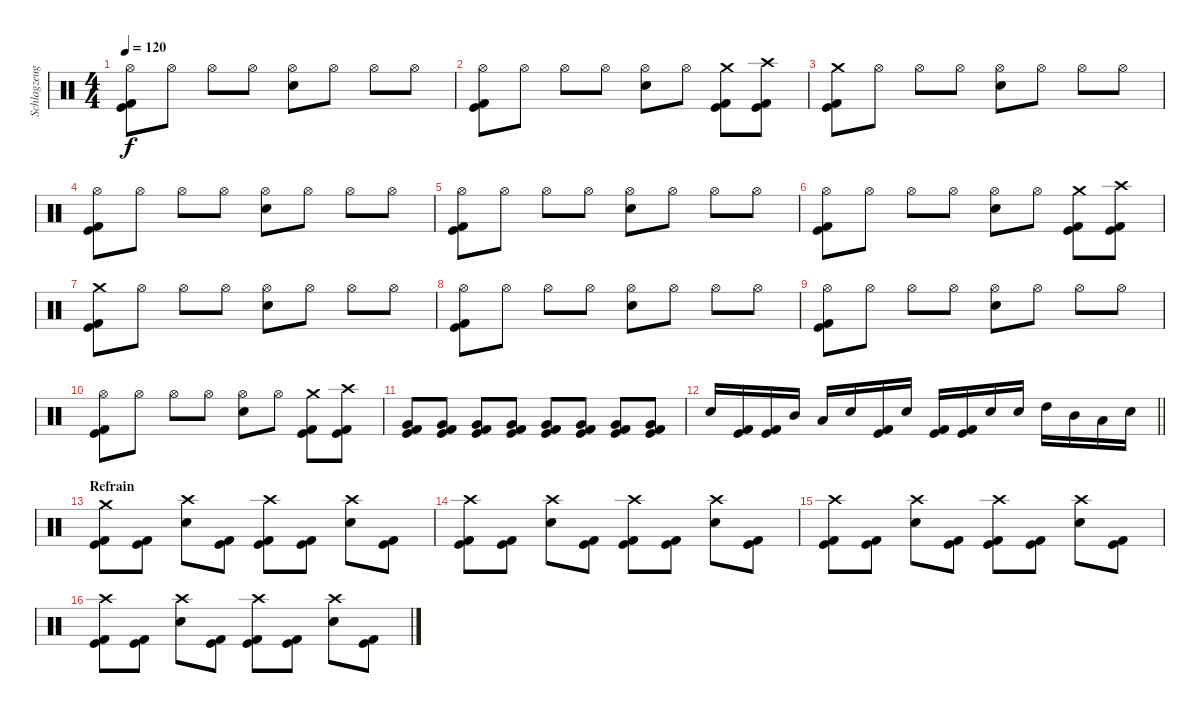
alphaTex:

\track ("Schlagzeug" "Schlagzeug") {instrument percussion}
\staff {score}
\articulation defaults
\ts (4 4)
\tempo 120
\clef neutral
\ks c
("Hi-Hat (open)" "Kick (hit) 2" "Kick (hit)").8{dy f} "Hi-Hat (open)".8 "Hi-Hat (open)".8 "Hi-Hat (open)".8 ("Hi-Hat (open)" "Electric Snare (hit)").8 "Hi-Hat (open)".8 "Hi-Hat (open)".8 "Hi-Hat (open)".8 |
("Hi-Hat (open)" "Kick (hit) 2" "Kick (hit)").8 "Hi-Hat (open)".8 "Hi-Hat (open)".8 "Hi-Hat (open)".8 ("Hi-Hat (open)" "Electric Snare (hit)").8 "Hi-Hat (open)".8 ("Kick (hit) 2" "Kick (hit)" "Crash medium (hit)").8 ("Kick (hit) 2" "Kick (hit)" "Crash high (hit)").8 |
("Kick (hit) 2" "Kick (hit)" "Crash medium (hit)").8 "Hi-Hat (open)".8 "Hi-Hat (open)".8 "Hi-Hat (open)".8 ("Hi-Hat (open)" "Electric Snare (hit)").8 "Hi-Hat (open)".8 "Hi-Hat (open)".8 "Hi-Hat (open)".8 |
("Hi-Hat (open)" "Kick (hit) 2" "Kick (hit)").8 "Hi-Hat (open)".8 "Hi-Hat (open)".8 "Hi-Hat (open)".8 ("Hi-Hat (open)" "Electric Snare (hit)").8 "Hi-Hat (open)".8 "Hi-Hat (open)".8 "Hi-Hat (open)".8 |
("Hi-Hat (open)" "Kick (hit) 2" "Kick (hit)").8 "Hi-Hat (open)".8 "Hi-Hat (open)".8 "Hi-Hat (open)".8 ("Hi-Hat (open)" "Electric Snare (hit)").8 "Hi-Hat (open)".8 "Hi-Hat (open)".8 "Hi-Hat (open)".8 |
("Hi-Hat (open)" "Kick (hit) 2" "Kick (hit)").8 "Hi-Hat (open)".8 "Hi-Hat (open)".8 "Hi-Hat (open)".8 ("Hi-Hat (open)" "Electric Snare (hit)").8 "Hi-Hat (open)".8 ("Kick (hit) 2" "Kick (hit)" "Crash medium (hit)").8 ("Kick (hit) 2" "Kick (hit)" "Crash high (hit)").8 |
("Kick (hit) 2" "Kick (hit)" "Crash medium (hit)").8 "Hi-Hat (open)".8 "Hi-Hat (open)".8 "Hi-Hat (open)".8 ("Hi-Hat (open)" "Electric Snare (hit)").8 "Hi-Hat (open)".8 "Hi-Hat (open)".8 "Hi-Hat (open)".8 |
("Hi-Hat (open)" "Kick (hit) 2" "Kick (hit)").8 "Hi-Hat (open)".8 "Hi-Hat (open)".8 "Hi-Hat (open)".8 ("Hi-Hat (open)" "Electric Snare (hit)").8 "Hi-Hat (open)".8 "Hi-Hat (open)".8 "Hi-Hat (open)".8 |
("Hi-Hat (open)" "Kick (hit) 2" "Kick (hit)").8 "Hi-Hat (open)".8 "Hi-Hat (open)".8 "Hi-Hat (open)".8 ("Hi-Hat (open)" "Electric Snare (hit)").8 "Hi-Hat (open)".8 "Hi-Hat (open)".8 "Hi-Hat (open)".8 |
("Hi-Hat (open)" "Kick (hit) 2" "Kick (hit)").8 "Hi-Hat (open)".8 "Hi-Hat (open)".8 "Hi-Hat (open)".8 ("Hi-Hat (open)" "Electric Snare (hit)").8 "Hi-Hat (open)".8 ("Kick (hit) 2" "Kick (hit)" "Crash medium (hit)").8 ("Kick (hit) 2" "Kick (hit)" "Crash high (hit)").8 |
("Very Low Tom (hit)" "Kick (hit) 2" "Kick (hit)").8 ("Very Low Tom (hit)" "Kick (hit) 2" "Kick (hit)").8 ("Very Low Tom (hit)" "Kick (hit) 2" "Kick (hit)").8 ("Very Low Tom (hit)" "Kick (hit) 2" "Kick (hit)").8 ("Very Low Tom (hit)" "Kick (hit) 2" "Kick (hit)").8 ("Very Low Tom (hit)" "Kick (hit) 2" "Kick (hit)").8 ("Very Low Tom (hit)" "Kick (hit) 2" "Kick (hit)").8 ("Very Low Tom (hit)" "Kick (hit) 2" "Kick (hit)").8 |
\barLineRight lightlight "Electric Snare (hit)".16
("Kick (hit) 2" "Kick (hit)").16 ("Kick (hit) 2" "Kick (hit)").16 "Mid Tom (hit)".16 "Low Tom (hit)".16 "Electric Snare (hit)".16 ("Kick (hit) 2" "Kick (hit)").16 "Electric Snare (hit)".16 ("Kick (hit) 2" "Kick (hit)").16 ("Kick (hit) 2" "Kick (hit)").16 "Electric Snare (hit)".16 "Electric Snare (hit)".16 "High Tom (hit)".16 "Mid Tom (hit)".16 "Low Tom (hit)".16 "Electric Snare (hit)".16 |
\section ("" "Refrain")
("Kick (hit) 2" "Kick (hit)" "Crash medium (hit)").8 ("Kick (hit) 2" "Kick (hit)").8 ("Electric Snare (hit)" "Crash high (hit)").8 ("Kick (hit) 2" "Kick (hit)").8 ("Kick (hit) 2" "Kick (hit)" "Crash high (hit)").8 ("Kick (hit) 2" "Kick (hit)").8 ("Electric Snare (hit)" "Crash high (hit)").8 ("Kick (hit) 2" "Kick (hit)").8 |
("Kick (hit) 2" "Kick (hit)" "Crash high (hit)").8 ("Kick (hit) 2" "Kick (hit)").8 ("Electric Snare (hit)" "Crash high (hit)").8 ("Kick (hit) 2" "Kick (hit)").8 ("Kick (hit) 2" "Kick (hit)" "Crash high (hit)").8 ("Kick (hit) 2" "Kick (hit)").8 ("Electric Snare (hit)" "Crash high (hit)").8 ("Kick (hit) 2" "Kick (hit)").8 |
("Kick (hit) 2" "Kick (hit)" "Crash high (hit)").8 ("Kick (hit) 2" "Kick (hit)").8 ("Electric Snare (hit)" "Crash high (hit)").8 ("Kick (hit) 2" "Kick (hit)").8 ("Kick (hit) 2" "Kick (hit)" "Crash high (hit)").8 ("Kick (hit) 2" "Kick (hit)").8 ("Electric Snare (hit)" "Crash high (hit)").8 ("Kick (hit) 2" "Kick (hit)").8 |
("Kick (hit) 2" "Kick (hit)" "Crash high (hit)").8 ("Kick (hit) 2" "Kick (hit)").8 ("Electric Snare (hit)" "Crash high (hit)").8 ("Kick (hit) 2" "Kick (hit)").8 ("Kick (hit) 2" "Kick (hit)" "Crash high (hit)").8 ("Kick (hit) 2" "Kick (hit)").8 ("Electric Snare (hit)" "Crash high (hit)").8 ("Kick (hit) 2" "Kick (hit)").8
